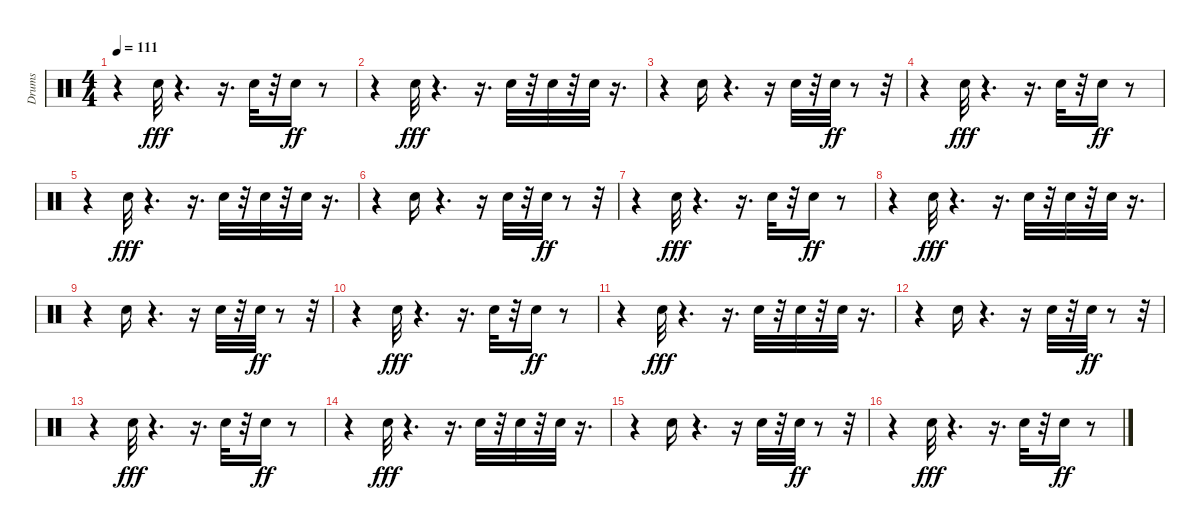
\track ("Drums" "Drums") {instrument percussion}
\staff {score}
\articulation defaults
\ts (4 4)
\tempo 111
\clef neutral
\ks c
r.4{dy ff} "Electric Snare (hit)".32{dy fff} r.4{d} r.16{d} "Electric Snare (hit)".32 r.32 "Electric Snare (hit)".16{dy ff} r.8 |
r.4 "Electric Snare (hit)".32{dy fff} r.4{d} r.16{d} "Electric Snare (hit)".32 r.32 "Electric Snare (hit)".32 r.32 "Electric Snare (hit)".32 r.16{d} |
r.4 "Electric Snare (hit)".16 r.4{d} r.16 "Electric Snare (hit)".32 r.32 "Electric Snare (hit)".32{dy ff} r.8 r.32 |
r.4 "Electric Snare (hit)".32{dy fff} r.4{d} r.16{d} "Electric Snare (hit)".32 r.32 "Electric Snare (hit)".16{dy ff} r.8 |
r.4 "Electric Snare (hit)".32{dy fff} r.4{d} r.16{d} "Electric Snare (hit)".32 r.32 "Electric Snare (hit)".32 r.32 "Electric Snare (hit)".32 r.16{d} |
r.4 "Electric Snare (hit)".16 r.4{d} r.16 "Electric Snare (hit)".32 r.32 "Electric Snare (hit)".32{dy ff} r.8 r.32 |
r.4 "Electric Snare (hit)".32{dy fff} r.4{d} r.16{d} "Electric Snare (hit)".32 r.32 "Electric Snare (hit)".16{dy ff} r.8 |
r.4 "Electric Snare (hit)".32{dy fff} r.4{d} r.16{d} "Electric Snare (hit)".32 r.32 "Electric Snare (hit)".32 r.32 "Electric Snare (hit)".32 r.16{d} |
r.4 "Electric Snare (hit)".16 r.4{d} r.16 "Electric Snare (hit)".32 r.32 "Electric Snare (hit)".32{dy ff} r.8 r.32 |
r.4 "Electric Snare (hit)".32{dy fff} r.4{d} r.16{d} "Electric Snare (hit)".32 r.32 "Electric Snare (hit)".16{dy ff} r.8 |
r.4 "Electric Snare (hit)".32{dy fff} r.4{d} r.16{d} "Electric Snare (hit)".32 r.32 "Electric Snare (hit)".32 r.32 "Electric Snare (hit)".32 r.16{d} |
r.4 "Electric Snare (hit)".16 r.4{d} r.16 "Electric Snare (hit)".32 r.32 "Electric Snare (hit)".32{dy ff} r.8 r.32 |
r.4 "Electric Snare (hit)".32{dy fff} r.4{d} r.16{d} "Electric Snare (hit)".32 r.32 "Electric Snare (hit)".16{dy ff} r.8 |
r.4 "Electric Snare (hit)".32{dy fff} r.4{d} r.16{d} "Electric Snare (hit)".32 r.32 "Electric Snare (hit)".32 r.32 "Electric Snare (hit)".32 r.16{d} |
r.4 "Electric Snare (hit)".16 r.4{d} r.16 "Electric Snare (hit)".32 r.32 "Electric Snare (hit)".32{dy ff} r.8 r.32 |
r.4 "Electric Snare (hit)".32{dy fff} r.4{d} r.16{d} "Electric Snare (hit)".32 r.32 "Electric Snare (hit)".16{dy ff} r.8
